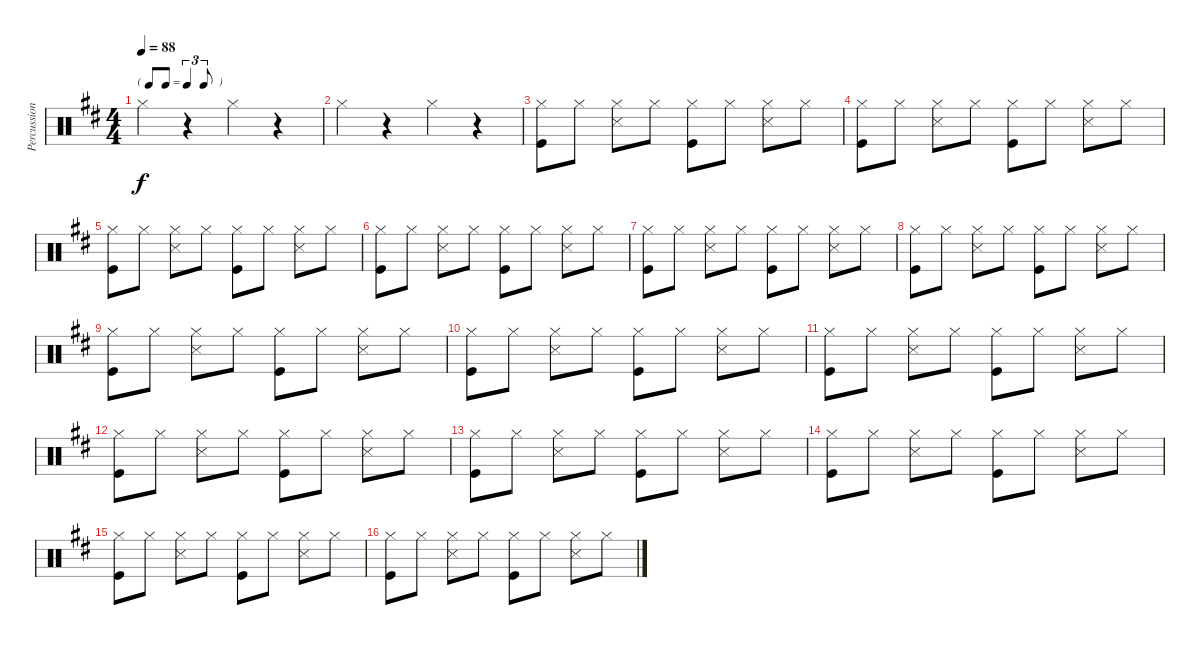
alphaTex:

\track ("Percussion" "Percussion") {instrument percussion}
\staff {score}
\articulation defaults
\ts (4 4)
\tf triplet8th
\tempo 88
\clef neutral
\ks d "Hi-Hat (closed)".4{dy f}
r.4 "Hi-Hat (closed)".4 r.4 |
"Hi-Hat (closed)".4 r.4 "Hi-Hat (closed)".4 r.4 |
("Hi-Hat (closed)" "Kick (hit)").8 "Hi-Hat (closed)".8 ("Hi-Hat (closed)" "Snare (side stick) 3").8 "Hi-Hat (closed)".8 ("Hi-Hat (closed)" "Kick (hit)").8 "Hi-Hat (closed)".8 ("Hi-Hat (closed)" "Snare (side stick) 3").8 "Hi-Hat (closed)".8 |
("Hi-Hat (closed)" "Kick (hit)").8 "Hi-Hat (closed)".8 ("Hi-Hat (closed)" "Snare (side stick) 3").8 "Hi-Hat (closed)".8 ("Hi-Hat (closed)" "Kick (hit)").8 "Hi-Hat (closed)".8 ("Hi-Hat (closed)" "Snare (side stick) 3").8 "Hi-Hat (closed)".8 |
("Hi-Hat (closed)" "Kick (hit)").8 "Hi-Hat (closed)".8 ("Hi-Hat (closed)" "Snare (side stick) 3").8 "Hi-Hat (closed)".8 ("Hi-Hat (closed)" "Kick (hit)").8 "Hi-Hat (closed)".8 ("Hi-Hat (closed)" "Snare (side stick) 3").8 "Hi-Hat (closed)".8 |
("Hi-Hat (closed)" "Kick (hit)").8 "Hi-Hat (closed)".8 ("Hi-Hat (closed)" "Snare (side stick) 3").8 "Hi-Hat (closed)".8 ("Hi-Hat (closed)" "Kick (hit)").8 "Hi-Hat (closed)".8 ("Hi-Hat (closed)" "Snare (side stick) 3").8 "Hi-Hat (closed)".8 |
("Hi-Hat (closed)" "Kick (hit)").8 "Hi-Hat (closed)".8 ("Hi-Hat (closed)" "Snare (side stick) 3").8 "Hi-Hat (closed)".8 ("Hi-Hat (closed)" "Kick (hit)").8 "Hi-Hat (closed)".8 ("Hi-Hat (closed)" "Snare (side stick) 3").8 "Hi-Hat (closed)".8 |
("Hi-Hat (closed)" "Kick (hit)").8 "Hi-Hat (closed)".8 ("Hi-Hat (closed)" "Snare (side stick) 3").8 "Hi-Hat (closed)".8 ("Hi-Hat (closed)" "Kick (hit)").8 "Hi-Hat (closed)".8 ("Hi-Hat (closed)" "Snare (side stick) 3").8 "Hi-Hat (closed)".8 |
("Hi-Hat (closed)" "Kick (hit)").8 "Hi-Hat (closed)".8 ("Hi-Hat (closed)" "Snare (side stick) 3").8 "Hi-Hat (closed)".8 ("Hi-Hat (closed)" "Kick (hit)").8 "Hi-Hat (closed)".8 ("Hi-Hat (closed)" "Snare (side stick) 3").8 "Hi-Hat (closed)".8 |
("Hi-Hat (closed)" "Kick (hit)").8 "Hi-Hat (closed)".8 ("Hi-Hat (closed)" "Snare (side stick) 3").8 "Hi-Hat (closed)".8 ("Hi-Hat (closed)" "Kick (hit)").8 "Hi-Hat (closed)".8 ("Hi-Hat (closed)" "Snare (side stick) 3").8 "Hi-Hat (closed)".8 |
("Hi-Hat (closed)" "Kick (hit)").8 "Hi-Hat (closed)".8 ("Hi-Hat (closed)" "Snare (side stick) 3").8 "Hi-Hat (closed)".8 ("Hi-Hat (closed)" "Kick (hit)").8 "Hi-Hat (closed)".8 ("Hi-Hat (closed)" "Snare (side stick) 3").8 "Hi-Hat (closed)".8 |
("Hi-Hat (closed)" "Kick (hit)").8 "Hi-Hat (closed)".8 ("Hi-Hat (closed)" "Snare (side stick) 3").8 "Hi-Hat (closed)".8 ("Hi-Hat (closed)" "Kick (hit)").8 "Hi-Hat (closed)".8 ("Hi-Hat (closed)" "Snare (side stick) 3").8 "Hi-Hat (closed)".8 |
("Hi-Hat (closed)" "Kick (hit)").8 "Hi-Hat (closed)".8 ("Hi-Hat (closed)" "Snare (side stick) 3").8 "Hi-Hat (closed)".8 ("Hi-Hat (closed)" "Kick (hit)").8 "Hi-Hat (closed)".8 ("Hi-Hat (closed)" "Snare (side stick) 3").8 "Hi-Hat (closed)".8 |
("Hi-Hat (closed)" "Kick (hit)").8 "Hi-Hat (closed)".8 ("Hi-Hat (closed)" "Snare (side stick) 3").8 "Hi-Hat (closed)".8 ("Hi-Hat (closed)" "Kick (hit)").8 "Hi-Hat (closed)".8 ("Hi-Hat (closed)" "Snare (side stick) 3").8 "Hi-Hat (closed)".8 |
("Hi-Hat (closed)" "Kick (hit)").8 "Hi-Hat (closed)".8 ("Hi-Hat (closed)" "Snare (side stick) 3").8 "Hi-Hat (closed)".8 ("Hi-Hat (closed)" "Kick (hit)").8 "Hi-Hat (closed)".8 ("Hi-Hat (closed)" "Snare (side stick) 3").8 "Hi-Hat (closed)".8 |
("Hi-Hat (closed)" "Kick (hit)").8 "Hi-Hat (closed)".8 ("Hi-Hat (closed)" "Snare (side stick) 3").8 "Hi-Hat (closed)".8 ("Hi-Hat (closed)" "Kick (hit)").8 "Hi-Hat (closed)".8 ("Hi-Hat (closed)" "Snare (side stick) 3").8 "Hi-Hat (closed)".8
